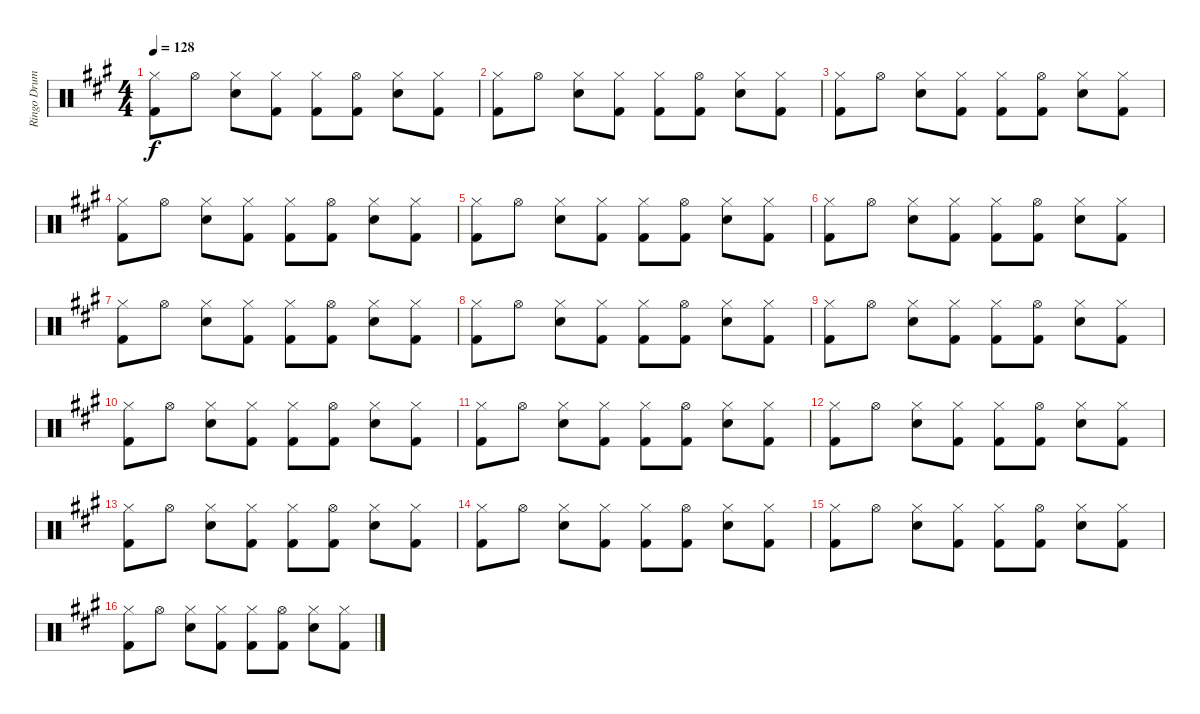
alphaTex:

\track ("Ringo Drums" "Ringo Drum") {instrument percussion}
\staff {score}
\articulation defaults
\ts (4 4)
\tempo 128
\clef neutral
\ks a
("Kick (hit) 2" "Hi-Hat (closed)").8{dy f} "Hi-Hat (open)".8 ("Snare (hit) 2" "Hi-Hat (closed)").8 ("Kick (hit) 2" "Hi-Hat (closed)").8 ("Kick (hit) 2" "Hi-Hat (closed)").8 ("Kick (hit) 2" "Hi-Hat (open)").8 ("Snare (hit) 2" "Hi-Hat (closed)").8 ("Kick (hit) 2" "Hi-Hat (closed)").8 |
("Kick (hit) 2" "Hi-Hat (closed)").8 "Hi-Hat (open)".8 ("Snare (hit) 2" "Hi-Hat (closed)").8 ("Kick (hit) 2" "Hi-Hat (closed)").8 ("Kick (hit) 2" "Hi-Hat (closed)").8 ("Kick (hit) 2" "Hi-Hat (open)").8 ("Snare (hit) 2" "Hi-Hat (closed)").8 ("Kick (hit) 2" "Hi-Hat (closed)").8 |
("Kick (hit) 2" "Hi-Hat (closed)").8 "Hi-Hat (open)".8 ("Snare (hit) 2" "Hi-Hat (closed)").8 ("Kick (hit) 2" "Hi-Hat (closed)").8 ("Kick (hit) 2" "Hi-Hat (closed)").8 ("Kick (hit) 2" "Hi-Hat (open)").8 ("Snare (hit) 2" "Hi-Hat (closed)").8 ("Kick (hit) 2" "Hi-Hat (closed)").8 |
("Kick (hit) 2" "Hi-Hat (closed)").8 "Hi-Hat (open)".8 ("Snare (hit) 2" "Hi-Hat (closed)").8 ("Kick (hit) 2" "Hi-Hat (closed)").8 ("Kick (hit) 2" "Hi-Hat (closed)").8 ("Kick (hit) 2" "Hi-Hat (open)").8 ("Snare (hit) 2" "Hi-Hat (closed)").8 ("Kick (hit) 2" "Hi-Hat (closed)").8 |
("Kick (hit) 2" "Hi-Hat (closed)").8 "Hi-Hat (open)".8 ("Snare (hit) 2" "Hi-Hat (closed)").8 ("Kick (hit) 2" "Hi-Hat (closed)").8 ("Kick (hit) 2" "Hi-Hat (closed)").8 ("Kick (hit) 2" "Hi-Hat (open)").8 ("Snare (hit) 2" "Hi-Hat (closed)").8 ("Kick (hit) 2" "Hi-Hat (closed)").8 |
("Kick (hit) 2" "Hi-Hat (closed)").8 "Hi-Hat (open)".8 ("Snare (hit) 2" "Hi-Hat (closed)").8 ("Kick (hit) 2" "Hi-Hat (closed)").8 ("Kick (hit) 2" "Hi-Hat (closed)").8 ("Kick (hit) 2" "Hi-Hat (open)").8 ("Snare (hit) 2" "Hi-Hat (closed)").8 ("Kick (hit) 2" "Hi-Hat (closed)").8 |
("Kick (hit) 2" "Hi-Hat (closed)").8 "Hi-Hat (open)".8 ("Snare (hit) 2" "Hi-Hat (closed)").8 ("Kick (hit) 2" "Hi-Hat (closed)").8 ("Kick (hit) 2" "Hi-Hat (closed)").8 ("Kick (hit) 2" "Hi-Hat (open)").8 ("Snare (hit) 2" "Hi-Hat (closed)").8 ("Kick (hit) 2" "Hi-Hat (closed)").8 |
("Kick (hit) 2" "Hi-Hat (closed)").8 "Hi-Hat (open)".8 ("Snare (hit) 2" "Hi-Hat (closed)").8 ("Kick (hit) 2" "Hi-Hat (closed)").8 ("Kick (hit) 2" "Hi-Hat (closed)").8 ("Kick (hit) 2" "Hi-Hat (open)").8 ("Snare (hit) 2" "Hi-Hat (closed)").8 ("Kick (hit) 2" "Hi-Hat (closed)").8 |
("Kick (hit) 2" "Hi-Hat (closed)").8 "Hi-Hat (open)".8 ("Snare (hit) 2" "Hi-Hat (closed)").8 ("Kick (hit) 2" "Hi-Hat (closed)").8 ("Kick (hit) 2" "Hi-Hat (closed)").8 ("Kick (hit) 2" "Hi-Hat (open)").8 ("Snare (hit) 2" "Hi-Hat (closed)").8 ("Kick (hit) 2" "Hi-Hat (closed)").8 |
("Kick (hit) 2" "Hi-Hat (closed)").8 "Hi-Hat (open)".8 ("Snare (hit) 2" "Hi-Hat (closed)").8 ("Kick (hit) 2" "Hi-Hat (closed)").8 ("Kick (hit) 2" "Hi-Hat (closed)").8 ("Kick (hit) 2" "Hi-Hat (open)").8 ("Snare (hit) 2" "Hi-Hat (closed)").8 ("Kick (hit) 2" "Hi-Hat (closed)").8 |
("Kick (hit) 2" "Hi-Hat (closed)").8 "Hi-Hat (open)".8 ("Snare (hit) 2" "Hi-Hat (closed)").8 ("Kick (hit) 2" "Hi-Hat (closed)").8 ("Kick (hit) 2" "Hi-Hat (closed)").8 ("Kick (hit) 2" "Hi-Hat (open)").8 ("Snare (hit) 2" "Hi-Hat (closed)").8 ("Kick (hit) 2" "Hi-Hat (closed)").8 |
("Kick (hit) 2" "Hi-Hat (closed)").8 "Hi-Hat (open)".8 ("Snare (hit) 2" "Hi-Hat (closed)").8 ("Kick (hit) 2" "Hi-Hat (closed)").8 ("Kick (hit) 2" "Hi-Hat (closed)").8 ("Kick (hit) 2" "Hi-Hat (open)").8 ("Snare (hit) 2" "Hi-Hat (closed)").8 ("Kick (hit) 2" "Hi-Hat (closed)").8 |
("Kick (hit) 2" "Hi-Hat (closed)").8 "Hi-Hat (open)".8 ("Snare (hit) 2" "Hi-Hat (closed)").8 ("Kick (hit) 2" "Hi-Hat (closed)").8 ("Kick (hit) 2" "Hi-Hat (closed)").8 ("Kick (hit) 2" "Hi-Hat (open)").8 ("Snare (hit) 2" "Hi-Hat (closed)").8 ("Kick (hit) 2" "Hi-Hat (closed)").8 |
("Kick (hit) 2" "Hi-Hat (closed)").8 "Hi-Hat (open)".8 ("Snare (hit) 2" "Hi-Hat (closed)").8 ("Kick (hit) 2" "Hi-Hat (closed)").8 ("Kick (hit) 2" "Hi-Hat (closed)").8 ("Kick (hit) 2" "Hi-Hat (open)").8 ("Snare (hit) 2" "Hi-Hat (closed)").8 ("Kick (hit) 2" "Hi-Hat (closed)").8 |
("Kick (hit) 2" "Hi-Hat (closed)").8 "Hi-Hat (open)".8 ("Snare (hit) 2" "Hi-Hat (closed)").8 ("Kick (hit) 2" "Hi-Hat (closed)").8 ("Kick (hit) 2" "Hi-Hat (closed)").8 ("Kick (hit) 2" "Hi-Hat (open)").8 ("Snare (hit) 2" "Hi-Hat (closed)").8 ("Kick (hit) 2" "Hi-Hat (closed)").8 |
("Kick (hit) 2" "Hi-Hat (closed)").8 "Hi-Hat (open)".8 ("Snare (hit) 2" "Hi-Hat (closed)").8 ("Kick (hit) 2" "Hi-Hat (closed)").8 ("Kick (hit) 2" "Hi-Hat (closed)").8 ("Kick (hit) 2" "Hi-Hat (open)").8 ("Snare (hit) 2" "Hi-Hat (closed)").8 ("Kick (hit) 2" "Hi-Hat (closed)").8
